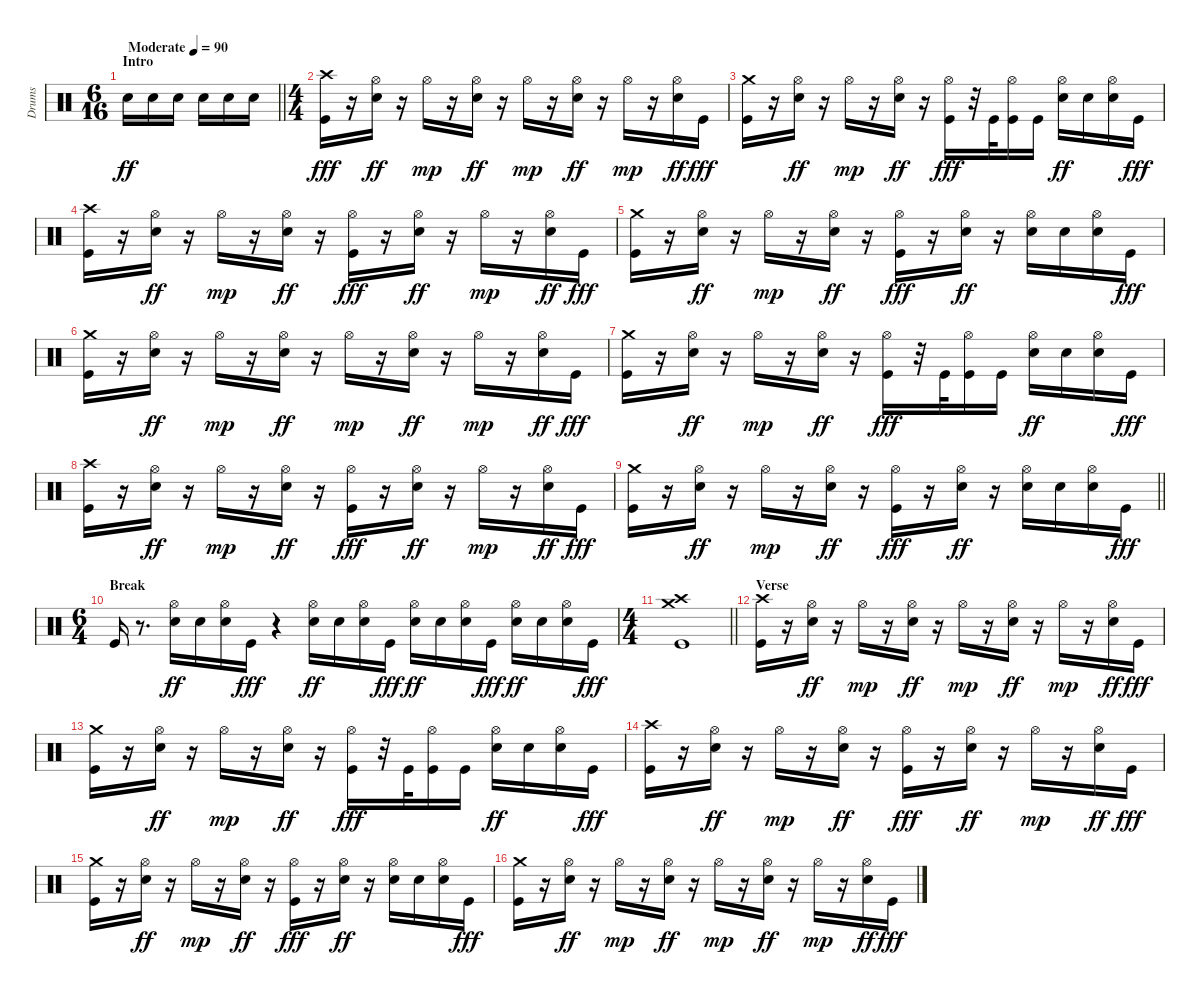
\track ("Drums" "Drums") {instrument percussion}
\staff {score}
\articulation defaults
\ts (6 16)
\section ("" "Intro")
\tempo (90 "Moderate")
\clef neutral
\barLineRight lightlight
\ks c "Electric Snare (hit)".16{dy ff} "Electric Snare (hit)".16 "Electric Snare (hit)".16 "Electric Snare (hit)".16 "Electric Snare (hit)".16 "Electric Snare (hit)".16
|
\ts (4 4)
("Crash high (hit)" "Kick (hit)").16{dy fff} r.16 ("Hi-Hat (open)" "Electric Snare (hit)").16{dy ff} r.16 "Hi-Hat (open)".16{dy mp} r.16 ("Hi-Hat (open)" "Electric Snare (hit)").16{dy ff} r.16 "Hi-Hat (open)".16{dy mp} r.16 ("Hi-Hat (open)" "Electric Snare (hit)").16{dy ff} r.16 "Hi-Hat (open)".16{dy mp} r.16 ("Hi-Hat (open)" "Electric Snare (hit)").16{dy ff} "Kick (hit)".16{dy fff} |
("Crash medium (hit)" "Kick (hit)").16 r.16 ("Hi-Hat (open)" "Electric Snare (hit)").16{dy ff} r.16 "Hi-Hat (open)".16{dy mp} r.16 ("Hi-Hat (open)" "Electric Snare (hit)").16{dy ff} r.16 ("Hi-Hat (open)" "Kick (hit)").16{dy fff} r.32 "Kick (hit)".32 ("Hi-Hat (open)" "Kick (hit)").16 "Kick (hit)".16 ("Hi-Hat (open)" "Electric Snare (hit)").16{dy ff} "Electric Snare (hit)".16 ("Hi-Hat (open)" "Electric Snare (hit)").16 "Kick (hit)".16{dy fff} |
("Crash high (hit)" "Kick (hit)").16 r.16 ("Hi-Hat (open)" "Electric Snare (hit)").16{dy ff} r.16 "Hi-Hat (open)".16{dy mp} r.16 ("Hi-Hat (open)" "Electric Snare (hit)").16{dy ff} r.16 ("Hi-Hat (open)" "Kick (hit)").16{dy fff} r.16 ("Hi-Hat (open)" "Electric Snare (hit)").16{dy ff} r.16 "Hi-Hat (open)".16{dy mp} r.16 ("Hi-Hat (open)" "Electric Snare (hit)").16{dy ff} "Kick (hit)".16{dy fff} |
("Crash medium (hit)" "Kick (hit)").16 r.16 ("Hi-Hat (open)" "Electric Snare (hit)").16{dy ff} r.16 "Hi-Hat (open)".16{dy mp} r.16 ("Hi-Hat (open)" "Electric Snare (hit)").16{dy ff} r.16 ("Hi-Hat (open)" "Kick (hit)").16{dy fff} r.16 ("Hi-Hat (open)" "Electric Snare (hit)").16{dy ff} r.16 ("Hi-Hat (open)" "Electric Snare (hit)").16 "Electric Snare (hit)".16 ("Hi-Hat (open)" "Electric Snare (hit)").16 "Kick (hit)".16{dy fff} |
("Crash medium (hit)" "Kick (hit)").16 r.16 ("Hi-Hat (open)" "Electric Snare (hit)").16{dy ff} r.16 "Hi-Hat (open)".16{dy mp} r.16 ("Hi-Hat (open)" "Electric Snare (hit)").16{dy ff} r.16 "Hi-Hat (open)".16{dy mp} r.16 ("Hi-Hat (open)" "Electric Snare (hit)").16{dy ff} r.16 "Hi-Hat (open)".16{dy mp} r.16 ("Hi-Hat (open)" "Electric Snare (hit)").16{dy ff} "Kick (hit)".16{dy fff} |
("Crash medium (hit)" "Kick (hit)").16 r.16 ("Hi-Hat (open)" "Electric Snare (hit)").16{dy ff} r.16 "Hi-Hat (open)".16{dy mp} r.16 ("Hi-Hat (open)" "Electric Snare (hit)").16{dy ff} r.16 ("Hi-Hat (open)" "Kick (hit)").16{dy fff} r.32 "Kick (hit)".32 ("Hi-Hat (open)" "Kick (hit)").16 "Kick (hit)".16 ("Hi-Hat (open)" "Electric Snare (hit)").16{dy ff} "Electric Snare (hit)".16 ("Hi-Hat (open)" "Electric Snare (hit)").16 "Kick (hit)".16{dy fff} |
("Crash high (hit)" "Kick (hit)").16 r.16 ("Hi-Hat (open)" "Electric Snare (hit)").16{dy ff} r.16 "Hi-Hat (open)".16{dy mp} r.16 ("Hi-Hat (open)" "Electric Snare (hit)").16{dy ff} r.16 ("Hi-Hat (open)" "Kick (hit)").16{dy fff} r.16 ("Hi-Hat (open)" "Electric Snare (hit)").16{dy ff} r.16 "Hi-Hat (open)".16{dy mp} r.16 ("Hi-Hat (open)" "Electric Snare (hit)").16{dy ff} "Kick (hit)".16{dy fff} |
\barLineRight lightlight
("Crash medium (hit)" "Kick (hit)").16 r.16 ("Hi-Hat (open)" "Electric Snare (hit)").16{dy ff} r.16 "Hi-Hat (open)".16{dy mp} r.16 ("Hi-Hat (open)" "Electric Snare (hit)").16{dy ff} r.16 ("Hi-Hat (open)" "Kick (hit)").16{dy fff} r.16 ("Hi-Hat (open)" "Electric Snare (hit)").16{dy ff} r.16 ("Hi-Hat (open)" "Electric Snare (hit)").16 "Electric Snare (hit)".16 ("Hi-Hat (open)" "Electric Snare (hit)").16 "Kick (hit)".16{dy fff} |
\ts (6 4)
\section ("" "Break")
"Kick (hit)".16 r.8{d} ("Hi-Hat (open)" "Electric Snare (hit)").16{dy ff} "Electric Snare (hit)".16 ("Hi-Hat (open)" "Electric Snare (hit)").16 "Kick (hit)".16{dy fff} r.4 ("Hi-Hat (open)" "Electric Snare (hit)").16{dy ff} "Electric Snare (hit)".16 ("Hi-Hat (open)" "Electric Snare (hit)").16 "Kick (hit)".16{dy fff} ("Hi-Hat (open)" "Electric Snare (hit)").16{dy ff} "Electric Snare (hit)".16 ("Hi-Hat (open)" "Electric Snare (hit)").16 "Kick (hit)".16{dy fff} ("Hi-Hat (open)" "Electric Snare (hit)").16{dy ff} "Electric Snare (hit)".16 ("Hi-Hat (open)" "Electric Snare (hit)").16 "Kick (hit)".16{dy fff} |
\ts (4 4)
\barLineRight lightlight
("Crash medium (hit)" "Crash high (hit)" "Kick (hit)").1 |
\section ("" "Verse")
("Crash high (hit)" "Kick (hit)").16 r.16 ("Hi-Hat (open)" "Electric Snare (hit)").16{dy ff} r.16 "Hi-Hat (open)".16{dy mp} r.16 ("Hi-Hat (open)" "Electric Snare (hit)").16{dy ff} r.16 "Hi-Hat (open)".16{dy mp} r.16 ("Hi-Hat (open)" "Electric Snare (hit)").16{dy ff} r.16 "Hi-Hat (open)".16{dy mp} r.16 ("Hi-Hat (open)" "Electric Snare (hit)").16{dy ff} "Kick (hit)".16{dy fff} |
("Crash medium (hit)" "Kick (hit)").16 r.16 ("Hi-Hat (open)" "Electric Snare (hit)").16{dy ff} r.16 "Hi-Hat (open)".16{dy mp} r.16 ("Hi-Hat (open)" "Electric Snare (hit)").16{dy ff} r.16 ("Hi-Hat (open)" "Kick (hit)").16{dy fff} r.32 "Kick (hit)".32 ("Hi-Hat (open)" "Kick (hit)").16 "Kick (hit)".16 ("Hi-Hat (open)" "Electric Snare (hit)").16{dy ff} "Electric Snare (hit)".16 ("Hi-Hat (open)" "Electric Snare (hit)").16 "Kick (hit)".16{dy fff} |
("Crash high (hit)" "Kick (hit)").16 r.16 ("Hi-Hat (open)" "Electric Snare (hit)").16{dy ff} r.16 "Hi-Hat (open)".16{dy mp} r.16 ("Hi-Hat (open)" "Electric Snare (hit)").16{dy ff} r.16 ("Hi-Hat (open)" "Kick (hit)").16{dy fff} r.16 ("Hi-Hat (open)" "Electric Snare (hit)").16{dy ff} r.16 "Hi-Hat (open)".16{dy mp} r.16 ("Hi-Hat (open)" "Electric Snare (hit)").16{dy ff} "Kick (hit)".16{dy fff} |
("Crash medium (hit)" "Kick (hit)").16 r.16 ("Hi-Hat (open)" "Electric Snare (hit)").16{dy ff} r.16 "Hi-Hat (open)".16{dy mp} r.16 ("Hi-Hat (open)" "Electric Snare (hit)").16{dy ff} r.16 ("Hi-Hat (open)" "Kick (hit)").16{dy fff} r.16 ("Hi-Hat (open)" "Electric Snare (hit)").16{dy ff} r.16 ("Hi-Hat (open)" "Electric Snare (hit)").16 "Electric Snare (hit)".16 ("Hi-Hat (open)" "Electric Snare (hit)").16 "Kick (hit)".16{dy fff} |
("Crash medium (hit)" "Kick (hit)").16 r.16 ("Hi-Hat (open)" "Electric Snare (hit)").16{dy ff} r.16 "Hi-Hat (open)".16{dy mp} r.16 ("Hi-Hat (open)" "Electric Snare (hit)").16{dy ff} r.16 "Hi-Hat (open)".16{dy mp} r.16 ("Hi-Hat (open)" "Electric Snare (hit)").16{dy ff} r.16 "Hi-Hat (open)".16{dy mp} r.16 ("Hi-Hat (open)" "Electric Snare (hit)").16{dy ff} "Kick (hit)".16{dy fff}
